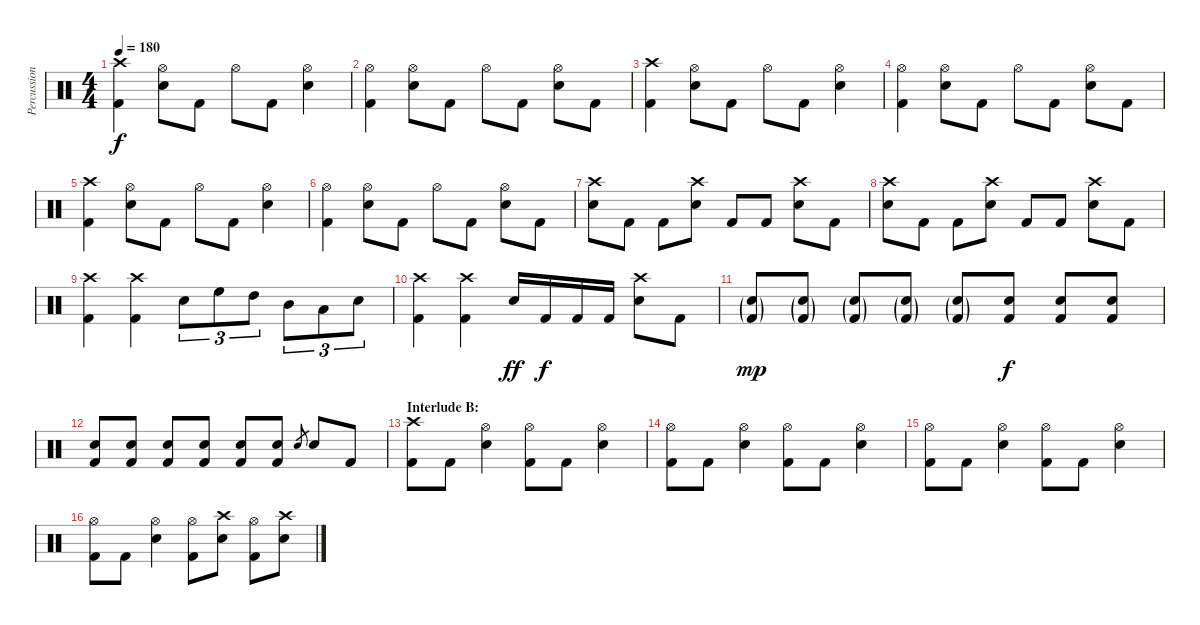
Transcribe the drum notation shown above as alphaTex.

\track ("Percussion" "Percussion") {instrument percussion}
\staff {score}
\articulation defaults
\ts (4 4)
\tempo 180
\clef neutral
\ks c
("Crash high (hit)" "Kick (hit) 2").4{dy f} ("Hi-Hat (open)" "Snare (hit) 2").8 "Kick (hit) 2".8 "Hi-Hat (open)".8 "Kick (hit) 2".8 ("Hi-Hat (open)" "Snare (hit) 2").4 |
("Hi-Hat (open)" "Kick (hit) 2").4 ("Hi-Hat (open)" "Snare (hit) 2").8 "Kick (hit) 2".8 "Hi-Hat (open)".8 "Kick (hit) 2".8 ("Hi-Hat (open)" "Snare (hit) 2").8 "Kick (hit) 2".8 |
("Crash high (hit)" "Kick (hit) 2").4 ("Hi-Hat (open)" "Snare (hit) 2").8 "Kick (hit) 2".8 "Hi-Hat (open)".8 "Kick (hit) 2".8 ("Hi-Hat (open)" "Snare (hit) 2").4 |
("Hi-Hat (open)" "Kick (hit) 2").4 ("Hi-Hat (open)" "Snare (hit) 2").8 "Kick (hit) 2".8 "Hi-Hat (open)".8 "Kick (hit) 2".8 ("Hi-Hat (open)" "Snare (hit) 2").8 "Kick (hit) 2".8 |
("Crash high (hit)" "Kick (hit) 2").4 ("Hi-Hat (open)" "Snare (hit) 2").8 "Kick (hit) 2".8 "Hi-Hat (open)".8 "Kick (hit) 2".8 ("Hi-Hat (open)" "Snare (hit) 2").4 |
("Hi-Hat (open)" "Kick (hit) 2").4 ("Hi-Hat (open)" "Snare (hit) 2").8 "Kick (hit) 2".8 "Hi-Hat (open)".8 "Kick (hit) 2".8 ("Hi-Hat (open)" "Snare (hit) 2").8 "Kick (hit) 2".8 |
("Crash high (hit)" "Snare (hit) 2").8 "Kick (hit) 2".8 "Kick (hit) 2".8 ("Crash high (hit)" "Snare (hit) 2").8 "Kick (hit) 2".8 "Kick (hit) 2".8 ("Crash high (hit)" "Snare (hit) 2").8 "Kick (hit) 2".8 |
("Crash high (hit)" "Snare (hit) 2").8 "Kick (hit) 2".8 "Kick (hit) 2".8 ("Crash high (hit)" "Snare (hit) 2").8 "Kick (hit) 2".8 "Kick (hit) 2".8 ("Crash high (hit)" "Snare (hit) 2").8 "Kick (hit) 2".8 |
("Crash high (hit)" "Kick (hit) 2").4 ("Crash high (hit)" "Kick (hit) 2").4 "Snare (hit) 2".8{tu (3 2)} "High Floor Tom (hit)".8{tu (3 2)} "High Tom (hit)".8{tu (3 2)} "Mid Tom (hit)".8{tu (3 2)} "Low Tom (hit)".8{tu (3 2)} "Snare (hit) 2".8{tu (3 2)} |
("Crash high (hit)" "Kick (hit) 2").4 ("Crash high (hit)" "Kick (hit) 2").4 "Snare (hit) 2".16{dy ff} "Kick (hit) 2".16{dy f} "Kick (hit) 2".16 "Kick (hit) 2".16 ("Crash high (hit)" "Snare (hit) 2").8 "Kick (hit) 2".8 |
("Snare (hit) 2"{g} "Kick (hit) 2"{g}).8{dy mp} ("Snare (hit) 2"{g} "Kick (hit) 2"{g}).8 ("Snare (hit) 2"{g} "Kick (hit) 2"{g}).8 ("Snare (hit) 2"{g} "Kick (hit) 2"{g}).8 ("Snare (hit) 2"{g} "Kick (hit) 2"{g}).8 ("Snare (hit) 2" "Kick (hit) 2").8{dy f} ("Snare (hit) 2" "Kick (hit) 2").8 ("Snare (hit) 2" "Kick (hit) 2").8 |
("Snare (hit) 2" "Kick (hit) 2").8 ("Snare (hit) 2" "Kick (hit) 2").8 ("Snare (hit) 2" "Kick (hit) 2").8 ("Snare (hit) 2" "Kick (hit) 2").8 ("Snare (hit) 2" "Kick (hit) 2").8 ("Snare (hit) 2" "Kick (hit) 2").8 "Snare (hit) 2".8{gr} "Snare (hit) 2".8 "Kick (hit) 2".8 |
\section ("" "Interlude B:")
("Crash high (hit)" "Kick (hit) 2").8 "Kick (hit) 2".8 ("Hi-Hat (open)" "Snare (hit) 2").4 ("Hi-Hat (open)" "Kick (hit) 2").8 "Kick (hit) 2".8 ("Hi-Hat (open)" "Snare (hit) 2").4 |
("Hi-Hat (open)" "Kick (hit) 2").8 "Kick (hit) 2".8 ("Hi-Hat (open)" "Snare (hit) 2").4 ("Hi-Hat (open)" "Kick (hit) 2").8 "Kick (hit) 2".8 ("Hi-Hat (open)" "Snare (hit) 2").4 |
("Hi-Hat (open)" "Kick (hit) 2").8 "Kick (hit) 2".8 ("Hi-Hat (open)" "Snare (hit) 2").4 ("Hi-Hat (open)" "Kick (hit) 2").8 "Kick (hit) 2".8 ("Hi-Hat (open)" "Snare (hit) 2").4 |
("Hi-Hat (open)" "Kick (hit) 2").8 "Kick (hit) 2".8 ("Hi-Hat (open)" "Snare (hit) 2").4 ("Hi-Hat (open)" "Kick (hit) 2").8 ("Crash high (hit)" "Snare (hit) 2").8 ("Hi-Hat (open)" "Kick (hit) 2").8 ("Crash high (hit)" "Snare (hit) 2").8
